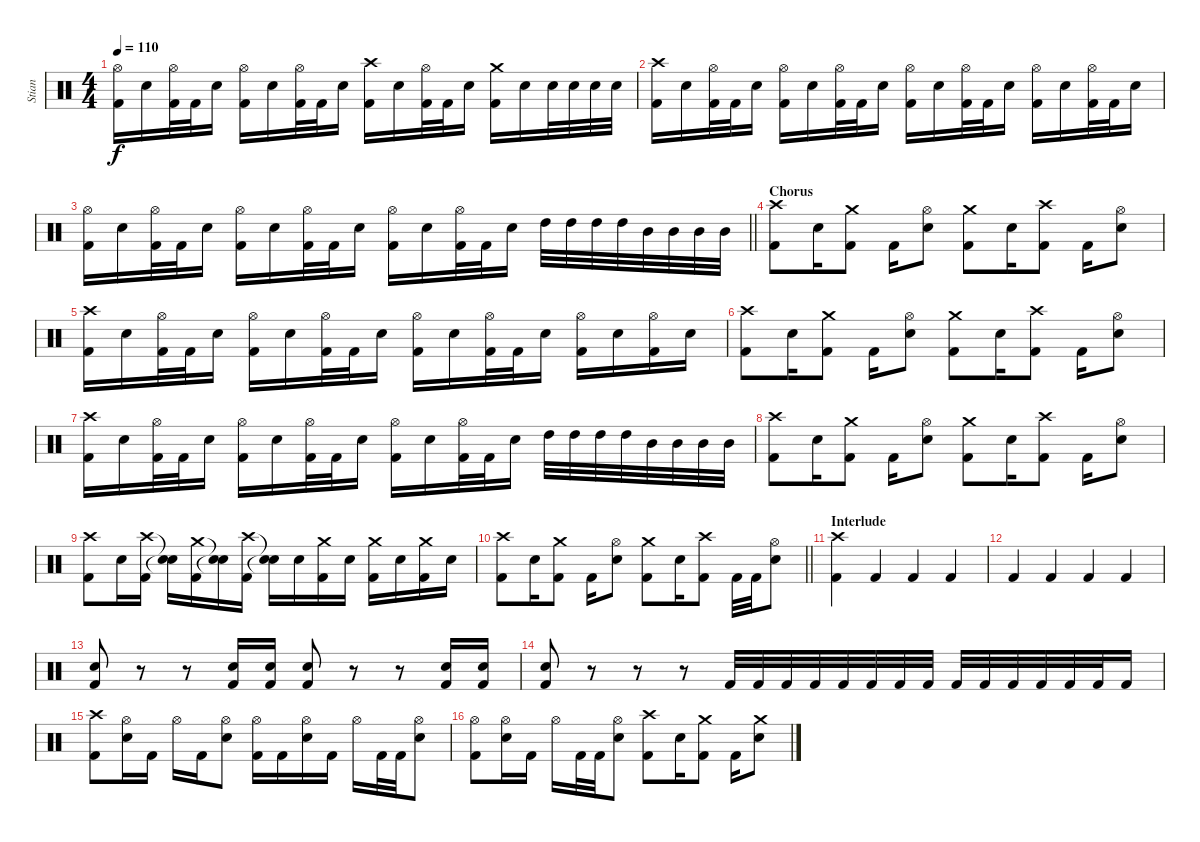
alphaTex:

\track ("Stian" "Stian") {instrument percussion}
\staff {score}
\articulation defaults
\ts (4 4)
\tempo 110
\clef neutral
\ks c
("Hi-Hat (open)" "Kick (hit) 2").16{dy f} "Electric Snare (hit)".16 ("Hi-Hat (open)" "Kick (hit) 2").32 "Kick (hit) 2".32 "Electric Snare (hit)".16 ("Hi-Hat (open)" "Kick (hit) 2").16 "Electric Snare (hit)".16 ("Hi-Hat (open)" "Kick (hit) 2").32 "Kick (hit) 2".32 "Electric Snare (hit)".16 ("Crash high (hit)" "Kick (hit) 2").16 "Electric Snare (hit)".16 ("Hi-Hat (open)" "Kick (hit) 2").32 "Kick (hit) 2".32 "Electric Snare (hit)".16 ("Crash medium (hit)" "Kick (hit) 2").16 "Electric Snare (hit)".16 "Electric Snare (hit)".32 "Electric Snare (hit)".32 "Electric Snare (hit)".32 "Electric Snare (hit)".32 |
("Crash high (hit)" "Kick (hit) 2").16 "Electric Snare (hit)".16 ("Hi-Hat (open)" "Kick (hit) 2").32 "Kick (hit) 2".32 "Electric Snare (hit)".16 ("Hi-Hat (open)" "Kick (hit) 2").16 "Electric Snare (hit)".16 ("Hi-Hat (open)" "Kick (hit) 2").32 "Kick (hit) 2".32 "Electric Snare (hit)".16 ("Hi-Hat (open)" "Kick (hit) 2").16 "Electric Snare (hit)".16 ("Hi-Hat (open)" "Kick (hit) 2").32 "Kick (hit) 2".32 "Electric Snare (hit)".16 ("Hi-Hat (open)" "Kick (hit) 2").16 "Electric Snare (hit)".16 ("Hi-Hat (open)" "Kick (hit) 2").32 "Kick (hit) 2".32 "Electric Snare (hit)".16 |
\barLineRight lightlight
("Hi-Hat (open)" "Kick (hit) 2").16 "Electric Snare (hit)".16 ("Hi-Hat (open)" "Kick (hit) 2").32 "Kick (hit) 2".32 "Electric Snare (hit)".16 ("Hi-Hat (open)" "Kick (hit) 2").16 "Electric Snare (hit)".16 ("Hi-Hat (open)" "Kick (hit) 2").32 "Kick (hit) 2".32 "Electric Snare (hit)".16 ("Hi-Hat (open)" "Kick (hit) 2").16 "Electric Snare (hit)".16 ("Hi-Hat (open)" "Kick (hit) 2").32 "Kick (hit) 2".32 "Electric Snare (hit)".16 "High Tom (hit)".32 "High Tom (hit)".32 "High Tom (hit)".32 "High Tom (hit)".32 "Mid Tom (hit)".32 "Mid Tom (hit)".32 "Mid Tom (hit)".32 "Mid Tom (hit)".32 |
\section ("" "Chorus")
("Crash high (hit)" "Kick (hit) 2").8 "Electric Snare (hit)".16 ("Crash medium (hit)" "Kick (hit) 2").8 "Kick (hit) 2".16 ("Hi-Hat (open)" "Electric Snare (hit)").8 ("Crash medium (hit)" "Kick (hit) 2").8 "Electric Snare (hit)".16 ("Crash high (hit)" "Kick (hit) 2").8 "Kick (hit) 2".16 ("Hi-Hat (open)" "Electric Snare (hit)").8 |
("Crash high (hit)" "Kick (hit) 2").16 "Electric Snare (hit)".16 ("Hi-Hat (open)" "Kick (hit) 2").32 "Kick (hit) 2".32 "Electric Snare (hit)".16 ("Hi-Hat (open)" "Kick (hit) 2").16 "Electric Snare (hit)".16 ("Hi-Hat (open)" "Kick (hit) 2").32 "Kick (hit) 2".32 "Electric Snare (hit)".16 ("Hi-Hat (open)" "Kick (hit) 2").16 "Electric Snare (hit)".16 ("Hi-Hat (open)" "Kick (hit) 2").32 "Kick (hit) 2".32 "Electric Snare (hit)".16 ("Hi-Hat (open)" "Kick (hit) 2").16 "Electric Snare (hit)".16 ("Hi-Hat (open)" "Kick (hit) 2").16 "Electric Snare (hit)".16 |
("Crash high (hit)" "Kick (hit) 2").8 "Electric Snare (hit)".16 ("Crash medium (hit)" "Kick (hit) 2").8 "Kick (hit) 2".16 ("Hi-Hat (open)" "Electric Snare (hit)").8 ("Crash medium (hit)" "Kick (hit) 2").8 "Electric Snare (hit)".16 ("Crash high (hit)" "Kick (hit) 2").8 "Kick (hit) 2".16 ("Hi-Hat (open)" "Electric Snare (hit)").8 |
("Crash high (hit)" "Kick (hit) 2").16 "Electric Snare (hit)".16 ("Hi-Hat (open)" "Kick (hit) 2").32 "Kick (hit) 2".32 "Electric Snare (hit)".16 ("Hi-Hat (open)" "Kick (hit) 2").16 "Electric Snare (hit)".16 ("Hi-Hat (open)" "Kick (hit) 2").32 "Kick (hit) 2".32 "Electric Snare (hit)".16 ("Hi-Hat (open)" "Kick (hit) 2").16 "Electric Snare (hit)".16 ("Hi-Hat (open)" "Kick (hit) 2").32 "Kick (hit) 2".32 "Electric Snare (hit)".16 "High Tom (hit)".32 "High Tom (hit)".32 "High Tom (hit)".32 "High Tom (hit)".32 "Mid Tom (hit)".32 "Mid Tom (hit)".32 "Mid Tom (hit)".32 "Mid Tom (hit)".32 |
("Crash high (hit)" "Kick (hit) 2").8 "Electric Snare (hit)".16 ("Crash medium (hit)" "Kick (hit) 2").8 "Kick (hit) 2".16 ("Hi-Hat (open)" "Electric Snare (hit)").8 ("Crash medium (hit)" "Kick (hit) 2").8 "Electric Snare (hit)".16 ("Crash high (hit)" "Kick (hit) 2").8 "Kick (hit) 2".16 ("Hi-Hat (open)" "Electric Snare (hit)").8 |
("Crash high (hit)" "Kick (hit) 2").8 "Electric Snare (hit)".16 ("Crash high (hit)" "Kick (hit) 2").16 ("Snare (hit)"{t} "Snare (hit)"{t}).16 ("Crash medium (hit)" "Kick (hit) 2").16 ("Snare (hit)"{t} "Snare (hit)"{t}).16 ("Crash high (hit)" "Kick (hit) 2").16 ("Snare (hit)"{t} "Snare (hit)"{t}).16 "Electric Snare (hit)".16 ("Crash medium (hit)" "Kick (hit) 2").16 "Electric Snare (hit)".16 ("Crash medium (hit)" "Kick (hit) 2").16 "Electric Snare (hit)".16 ("Crash medium (hit)" "Kick (hit) 2").16 "Electric Snare (hit)".16 |
\barLineRight lightlight
("Crash high (hit)" "Kick (hit) 2").8 "Electric Snare (hit)".16 ("Crash medium (hit)" "Kick (hit) 2").8 "Kick (hit) 2".16 ("Hi-Hat (open)" "Electric Snare (hit)").8 ("Crash medium (hit)" "Kick (hit) 2").8 "Electric Snare (hit)".16 ("Crash high (hit)" "Kick (hit) 2").8 "Kick (hit) 2".32 "Kick (hit) 2".32 ("Hi-Hat (open)" "Electric Snare (hit)").8 |
\section ("" "Interlude")
("Crash high (hit)" "Kick (hit) 2").4 "Kick (hit) 2".4 "Kick (hit) 2".4 "Kick (hit) 2".4 |
"Kick (hit) 2".4 "Kick (hit) 2".4 "Kick (hit) 2".4 "Kick (hit) 2".4 |
("Electric Snare (hit)" "Kick (hit) 2").8 r.8 r.8 ("Electric Snare (hit)" "Kick (hit) 2").16 ("Electric Snare (hit)" "Kick (hit) 2").16 ("Electric Snare (hit)" "Kick (hit) 2").8 r.8 r.8 ("Electric Snare (hit)" "Kick (hit) 2").16 ("Electric Snare (hit)" "Kick (hit) 2").16 |
("Electric Snare (hit)" "Kick (hit) 2").8 r.8 r.8 r.8 "Kick (hit) 2".32 "Kick (hit) 2".32 "Kick (hit) 2".32 "Kick (hit) 2".32 "Kick (hit) 2".32 "Kick (hit) 2".32 "Kick (hit) 2".32 "Kick (hit) 2".32 "Kick (hit) 2".32 "Kick (hit) 2".32 "Kick (hit) 2".32 "Kick (hit) 2".32 "Kick (hit) 2".32 "Kick (hit) 2".32 "Kick (hit) 2".16 |
("Crash high (hit)" "Kick (hit) 2").8 ("Hi-Hat (open)" "Electric Snare (hit)").16 "Kick (hit) 2".16 "Hi-Hat (open)".16 "Kick (hit) 2".16 ("Hi-Hat (open)" "Electric Snare (hit)").8 ("Hi-Hat (open)" "Kick (hit) 2").16 "Kick (hit) 2".16 ("Hi-Hat (open)" "Electric Snare (hit)").16 "Kick (hit) 2".16 "Hi-Hat (open)".16 "Kick (hit) 2".32 "Kick (hit) 2".32 ("Hi-Hat (open)" "Electric Snare (hit)").8 |
("Hi-Hat (open)" "Kick (hit) 2").8 ("Hi-Hat (open)" "Electric Snare (hit)").16 "Kick (hit) 2".16 "Hi-Hat (open)".16 "Kick (hit) 2".32 "Kick (hit) 2".32 ("Hi-Hat (open)" "Electric Snare (hit)").8 ("Crash high (hit)" "Kick (hit) 2").8 "Electric Snare (hit)".16 ("Crash medium (hit)" "Kick (hit) 2").8 "Kick (hit) 2".16 ("Crash medium (hit)" "Electric Snare (hit)").8
